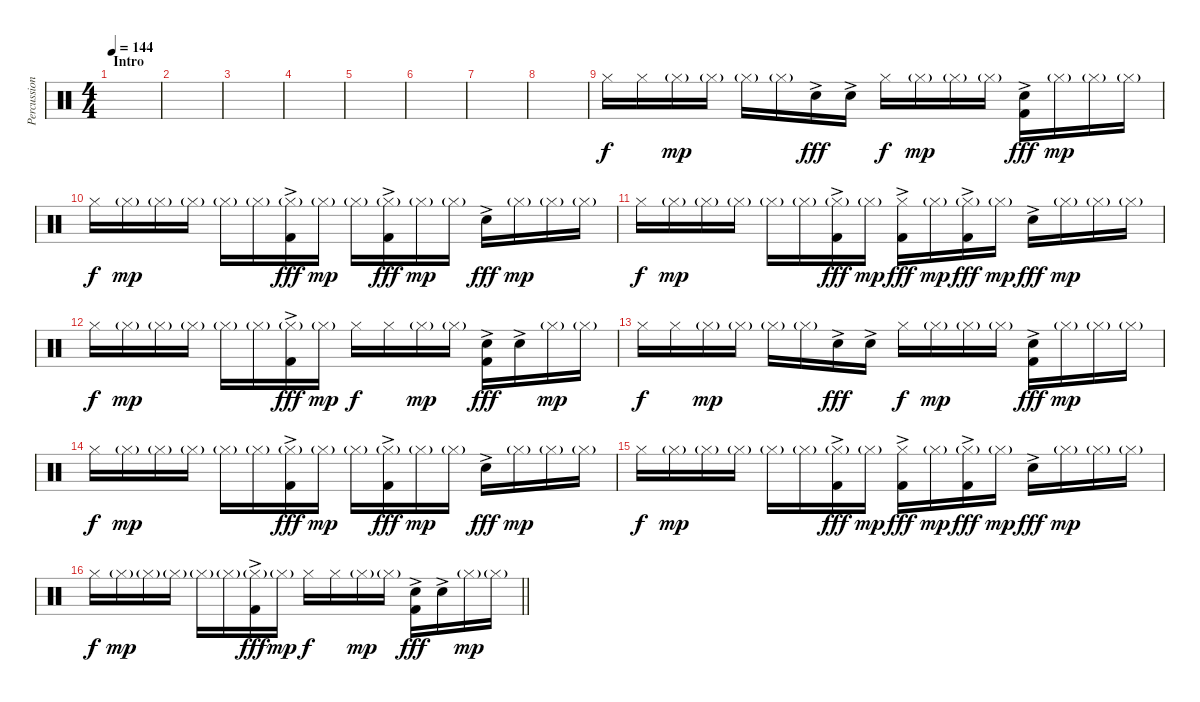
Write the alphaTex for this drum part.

\track ("Percussion" "Percussion") {instrument percussion}
\staff {score}
\articulation defaults
\ts (4 4)
\section ("" "Intro")
\tempo 144
\clef neutral
\ks c
|
|
|
|
|
|
|
|
"Hi-Hat (closed)".16 "Hi-Hat (closed)".16 "Hi-Hat (closed)"{g}.16{dy mp} "Hi-Hat (closed)"{g}.16 "Hi-Hat (closed)"{g}.16 "Hi-Hat (closed)"{g}.16 "Electric Snare (hit)"{ac}.16{dy fff} "Electric Snare (hit)"{ac}.16 "Hi-Hat (closed)".16{dy f} "Hi-Hat (closed)"{g}.16{dy mp} "Hi-Hat (closed)"{g}.16 "Hi-Hat (closed)"{g}.16 ("Electric Snare (hit)"{ac} "Kick (hit) 2"{ac}).16{dy fff} "Hi-Hat (closed)"{g}.16{dy mp} "Hi-Hat (closed)"{g}.16 "Hi-Hat (closed)"{g}.16 |
"Hi-Hat (closed)".16{dy f} "Hi-Hat (closed)"{g}.16{dy mp} "Hi-Hat (closed)"{g}.16 "Hi-Hat (closed)"{g}.16 "Hi-Hat (closed)"{g}.16 "Hi-Hat (closed)"{g}.16 ("Hi-Hat (closed)"{g} "Kick (hit) 2"{ac}).16{dy fff} "Hi-Hat (closed)"{g}.16{dy mp} "Hi-Hat (closed)"{g}.16 ("Hi-Hat (closed)"{g} "Kick (hit) 2"{ac}).16{dy fff} "Hi-Hat (closed)"{g}.16{dy mp} "Hi-Hat (closed)"{g}.16 "Electric Snare (hit)"{ac}.16{dy fff} "Hi-Hat (closed)"{g}.16{dy mp} "Hi-Hat (closed)"{g}.16 "Hi-Hat (closed)"{g}.16 |
"Hi-Hat (closed)".16{dy f} "Hi-Hat (closed)"{g}.16{dy mp} "Hi-Hat (closed)"{g}.16 "Hi-Hat (closed)"{g}.16 "Hi-Hat (closed)"{g}.16 "Hi-Hat (closed)"{g}.16 ("Hi-Hat (closed)"{g} "Kick (hit) 2"{ac}).16{dy fff} "Hi-Hat (closed)"{g}.16{dy mp} ("Hi-Hat (closed)" "Kick (hit) 2"{ac}).16{dy fff} "Hi-Hat (closed)"{g}.16{dy mp} ("Hi-Hat (closed)"{g} "Kick (hit) 2"{ac}).16{dy fff} "Hi-Hat (closed)"{g}.16{dy mp} "Electric Snare (hit)"{ac}.16{dy fff} "Hi-Hat (closed)"{g}.16{dy mp} "Hi-Hat (closed)"{g}.16 "Hi-Hat (closed)"{g}.16 |
"Hi-Hat (closed)".16{dy f} "Hi-Hat (closed)"{g}.16{dy mp} "Hi-Hat (closed)"{g}.16 "Hi-Hat (closed)"{g}.16 "Hi-Hat (closed)"{g}.16 "Hi-Hat (closed)"{g}.16 ("Hi-Hat (closed)"{g} "Kick (hit) 2"{ac}).16{dy fff} "Hi-Hat (closed)"{g}.16{dy mp} "Hi-Hat (closed)".16{dy f} "Hi-Hat (closed)".16 "Hi-Hat (closed)"{g}.16{dy mp} "Hi-Hat (closed)"{g}.16 ("Electric Snare (hit)"{ac} "Kick (hit) 2"{ac}).16{dy fff} "Electric Snare (hit)"{ac}.16 "Hi-Hat (closed)"{g}.16{dy mp} "Hi-Hat (closed)"{g}.16 |
"Hi-Hat (closed)".16{dy f} "Hi-Hat (closed)".16 "Hi-Hat (closed)"{g}.16{dy mp} "Hi-Hat (closed)"{g}.16 "Hi-Hat (closed)"{g}.16 "Hi-Hat (closed)"{g}.16 "Electric Snare (hit)"{ac}.16{dy fff} "Electric Snare (hit)"{ac}.16 "Hi-Hat (closed)".16{dy f} "Hi-Hat (closed)"{g}.16{dy mp} "Hi-Hat (closed)"{g}.16 "Hi-Hat (closed)"{g}.16 ("Electric Snare (hit)"{ac} "Kick (hit) 2"{ac}).16{dy fff} "Hi-Hat (closed)"{g}.16{dy mp} "Hi-Hat (closed)"{g}.16 "Hi-Hat (closed)"{g}.16 |
"Hi-Hat (closed)".16{dy f} "Hi-Hat (closed)"{g}.16{dy mp} "Hi-Hat (closed)"{g}.16 "Hi-Hat (closed)"{g}.16 "Hi-Hat (closed)"{g}.16 "Hi-Hat (closed)"{g}.16 ("Hi-Hat (closed)"{g} "Kick (hit) 2"{ac}).16{dy fff} "Hi-Hat (closed)"{g}.16{dy mp} "Hi-Hat (closed)"{g}.16 ("Hi-Hat (closed)"{g} "Kick (hit) 2"{ac}).16{dy fff} "Hi-Hat (closed)"{g}.16{dy mp} "Hi-Hat (closed)"{g}.16 "Electric Snare (hit)"{ac}.16{dy fff} "Hi-Hat (closed)"{g}.16{dy mp} "Hi-Hat (closed)"{g}.16 "Hi-Hat (closed)"{g}.16 |
"Hi-Hat (closed)".16{dy f} "Hi-Hat (closed)"{g}.16{dy mp} "Hi-Hat (closed)"{g}.16 "Hi-Hat (closed)"{g}.16 "Hi-Hat (closed)"{g}.16 "Hi-Hat (closed)"{g}.16 ("Hi-Hat (closed)"{g} "Kick (hit) 2"{ac}).16{dy fff} "Hi-Hat (closed)"{g}.16{dy mp} ("Hi-Hat (closed)" "Kick (hit) 2"{ac}).16{dy fff} "Hi-Hat (closed)"{g}.16{dy mp} ("Hi-Hat (closed)"{g} "Kick (hit) 2"{ac}).16{dy fff} "Hi-Hat (closed)"{g}.16{dy mp} "Electric Snare (hit)"{ac}.16{dy fff} "Hi-Hat (closed)"{g}.16{dy mp} "Hi-Hat (closed)"{g}.16 "Hi-Hat (closed)"{g}.16 |
\barLineRight lightlight "Hi-Hat (closed)".16{dy f} "Hi-Hat (closed)"{g}.16{dy mp} "Hi-Hat (closed)"{g}.16 "Hi-Hat (closed)"{g}.16 "Hi-Hat (closed)"{g}.16 "Hi-Hat (closed)"{g}.16
("Hi-Hat (closed)"{g} "Kick (hit) 2"{ac}).16{dy fff} "Hi-Hat (closed)"{g}.16{dy mp} "Hi-Hat (closed)".16{dy f} "Hi-Hat (closed)".16 "Hi-Hat (closed)"{g}.16{dy mp} "Hi-Hat (closed)"{g}.16 ("Electric Snare (hit)"{ac} "Kick (hit) 2"{ac}).16{dy fff} "Electric Snare (hit)"{ac}.16 "Hi-Hat (closed)"{g}.16{dy mp} "Hi-Hat (closed)"{g}.16
